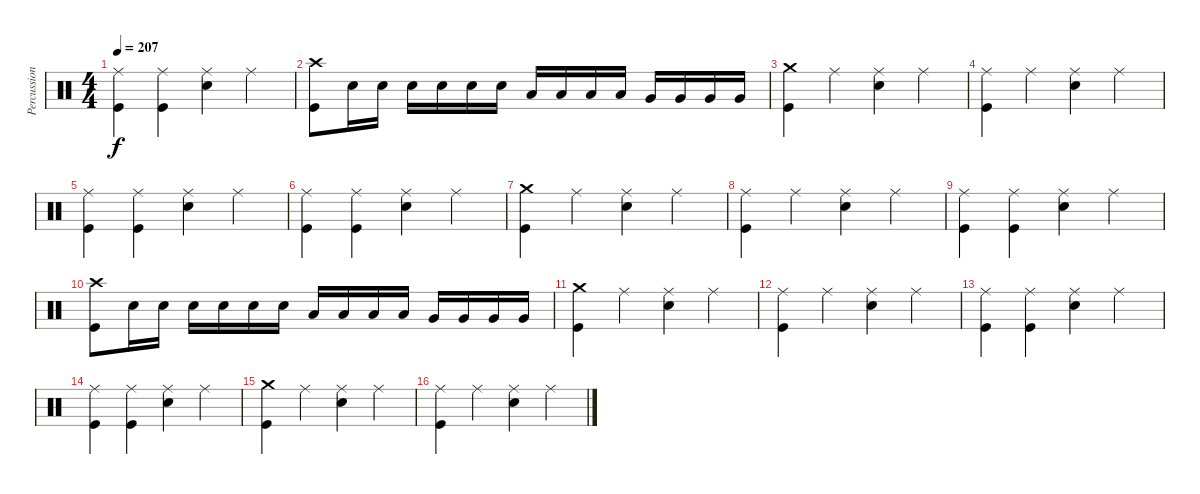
\track ("Percussion" "Percussion") {instrument percussion}
\staff {score}
\articulation defaults
\ts (4 4)
\tempo 207
\clef neutral
\ks c
("Ride (middle)" "Kick (hit)").4{dy f} ("Ride (middle)" "Kick (hit)").4 ("Electric Snare (hit)" "Ride (middle)").4 "Ride (middle)".4 |
("Crash high (hit)" "Kick (hit)").8 "Electric Snare (hit)".16 "Electric Snare (hit)".16 "Electric Snare (hit)".16 "Electric Snare (hit)".16 "Electric Snare (hit)".16 "Electric Snare (hit)".16 "Low Tom (hit)".16 "Low Tom (hit)".16 "Low Tom (hit)".16 "Low Tom (hit)".16 "Very Low Tom (hit)".16 "Very Low Tom (hit)".16 "Very Low Tom (hit)".16 "Very Low Tom (hit)".16 |
("Crash medium (hit)" "Kick (hit)").4 "Ride (middle)".4 ("Electric Snare (hit)" "Ride (middle)").4 "Ride (middle)".4 |
("Ride (middle)" "Kick (hit)").4 "Ride (middle)".4 ("Electric Snare (hit)" "Ride (middle)").4 "Ride (middle)".4 |
("Ride (middle)" "Kick (hit)").4 ("Ride (middle)" "Kick (hit)").4 ("Electric Snare (hit)" "Ride (middle)").4 "Ride (middle)".4 |
("Ride (middle)" "Kick (hit)").4 ("Ride (middle)" "Kick (hit)").4 ("Electric Snare (hit)" "Ride (middle)").4 "Ride (middle)".4 |
("Crash medium (hit)" "Kick (hit)").4 "Ride (middle)".4 ("Electric Snare (hit)" "Ride (middle)").4 "Ride (middle)".4 |
("Ride (middle)" "Kick (hit)").4 "Ride (middle)".4 ("Electric Snare (hit)" "Ride (middle)").4 "Ride (middle)".4 |
("Ride (middle)" "Kick (hit)").4 ("Ride (middle)" "Kick (hit)").4 ("Electric Snare (hit)" "Ride (middle)").4 "Ride (middle)".4 |
("Crash high (hit)" "Kick (hit)").8 "Electric Snare (hit)".16 "Electric Snare (hit)".16 "Electric Snare (hit)".16 "Electric Snare (hit)".16 "Electric Snare (hit)".16 "Electric Snare (hit)".16 "Low Tom (hit)".16 "Low Tom (hit)".16 "Low Tom (hit)".16 "Low Tom (hit)".16 "Very Low Tom (hit)".16 "Very Low Tom (hit)".16 "Very Low Tom (hit)".16 "Very Low Tom (hit)".16 |
("Crash medium (hit)" "Kick (hit)").4 "Ride (middle)".4 ("Electric Snare (hit)" "Ride (middle)").4 "Ride (middle)".4 |
("Ride (middle)" "Kick (hit)").4 "Ride (middle)".4 ("Electric Snare (hit)" "Ride (middle)").4 "Ride (middle)".4 |
("Ride (middle)" "Kick (hit)").4 ("Ride (middle)" "Kick (hit)").4 ("Electric Snare (hit)" "Ride (middle)").4 "Ride (middle)".4 |
("Ride (middle)" "Kick (hit)").4 ("Ride (middle)" "Kick (hit)").4 ("Electric Snare (hit)" "Ride (middle)").4 "Ride (middle)".4 |
("Crash medium (hit)" "Kick (hit)").4 "Ride (middle)".4 ("Electric Snare (hit)" "Ride (middle)").4 "Ride (middle)".4 |
("Ride (middle)" "Kick (hit)").4 "Ride (middle)".4 ("Electric Snare (hit)" "Ride (middle)").4 "Ride (middle)".4
